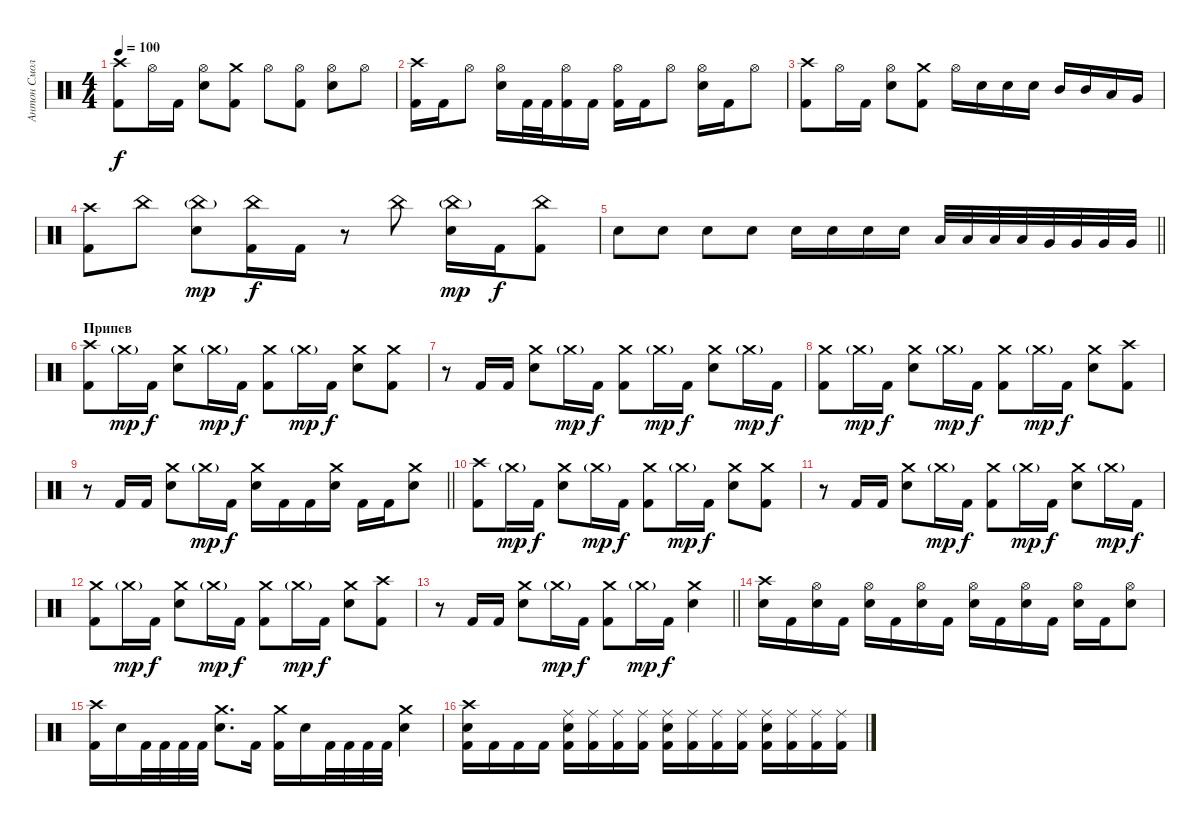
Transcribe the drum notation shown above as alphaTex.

\track ("Антон Смольянин" "Антон Смол") {instrument percussion}
\staff {score}
\articulation defaults
\ts (4 4)
\tempo 100
\clef neutral
\ks c
("Crash high (hit)" "Kick (hit) 2").8{dy f} "Hi-Hat (open)".16 "Kick (hit) 2".16 ("Hi-Hat (open)" "Electric Snare (hit)").8 ("Crash medium (hit)" "Kick (hit) 2").8 "Hi-Hat (open)".8 ("Hi-Hat (open)" "Kick (hit) 2").8 ("Hi-Hat (open)" "Electric Snare (hit)").8 "Hi-Hat (open)".8 |
("Crash high (hit)" "Kick (hit) 2").16 "Kick (hit) 2".16 "Hi-Hat (open)".8 ("Hi-Hat (open)" "Electric Snare (hit)").16 "Kick (hit) 2".32 "Kick (hit) 2".32 ("Hi-Hat (open)" "Kick (hit) 2").16 "Kick (hit) 2".16 ("Hi-Hat (open)" "Kick (hit) 2").16 "Kick (hit) 2".16 "Hi-Hat (open)".8 ("Hi-Hat (open)" "Electric Snare (hit)").16 "Kick (hit) 2".16 "Hi-Hat (open)".8 |
("Crash high (hit)" "Kick (hit) 2").8 "Hi-Hat (open)".16 "Kick (hit) 2".16 ("Hi-Hat (open)" "Electric Snare (hit)").8 ("Crash medium (hit)" "Kick (hit) 2").8 "Hi-Hat (open)".16 "Electric Snare (hit)".16 "Electric Snare (hit)".16 "Electric Snare (hit)".16 "Mid Tom (hit)".16 "Mid Tom (hit)".16 "Low Tom (hit)".16 "Very Low Tom (hit)".16 |
("Crash high (hit)" "Kick (hit) 2").8 "China (hit)".8 ("China (hit)"{g} "Electric Snare (hit)").8{dy mp} ("China (hit)" "Kick (hit) 2").16{dy f} "Kick (hit) 2".16 r.8 "China (hit)".8 ("China (hit)"{g} "Electric Snare (hit)").16{dy mp} "Kick (hit) 2".16{dy f} ("China (hit)" "Kick (hit) 2").8 |
\barLineRight lightlight "Electric Snare (hit)".8 "Electric Snare (hit)".8 "Electric Snare (hit)".8 "Electric Snare (hit)".8 "Electric Snare (hit)".16 "Electric Snare (hit)".16 "Electric Snare (hit)".16 "Electric Snare (hit)".16 "Low Tom (hit)".32 "Low Tom (hit)".32 "Low Tom (hit)".32 "Low Tom (hit)".32 "Very Low Tom (hit)".32 "Very Low Tom (hit)".32 "Very Low Tom (hit)".32 "Very Low Tom (hit)".32
|
\section ("" "Припев")
("Crash high (hit)" "Kick (hit) 2").8 "Crash medium (hit)"{g}.16{dy mp} "Kick (hit) 2".16{dy f} ("Crash medium (hit)" "Electric Snare (hit)").8 "Crash medium (hit)"{g}.16{dy mp} "Kick (hit) 2".16{dy f} ("Crash medium (hit)" "Kick (hit) 2").8 "Crash medium (hit)"{g}.16{dy mp} "Kick (hit) 2".16{dy f} ("Crash medium (hit)" "Electric Snare (hit)").8 ("Crash medium (hit)" "Kick (hit) 2").8 |
r.8 "Kick (hit) 2".16 "Kick (hit) 2".16 ("Crash medium (hit)" "Electric Snare (hit)").8 "Crash medium (hit)"{g}.16{dy mp} "Kick (hit) 2".16{dy f} ("Crash medium (hit)" "Kick (hit) 2").8 "Crash medium (hit)"{g}.16{dy mp} "Kick (hit) 2".16{dy f} ("Crash medium (hit)" "Electric Snare (hit)").8 "Crash medium (hit)"{g}.16{dy mp} "Kick (hit) 2".16{dy f} |
("Crash medium (hit)" "Kick (hit) 2").8 "Crash medium (hit)"{g}.16{dy mp} "Kick (hit) 2".16{dy f} ("Crash medium (hit)" "Electric Snare (hit)").8 "Crash medium (hit)"{g}.16{dy mp} "Kick (hit) 2".16{dy f} ("Crash medium (hit)" "Kick (hit) 2").8 "Crash medium (hit)"{g}.16{dy mp} "Kick (hit) 2".16{dy f} ("Crash medium (hit)" "Electric Snare (hit)").8 ("Crash high (hit)" "Kick (hit) 2").8 |
\barLineRight lightlight
r.8 "Kick (hit) 2".16 "Kick (hit) 2".16 ("Crash medium (hit)" "Electric Snare (hit)").8 "Crash medium (hit)"{g}.16{dy mp} "Kick (hit) 2".16{dy f} ("Crash medium (hit)" "Electric Snare (hit)").16 "Kick (hit) 2".16 "Kick (hit) 2".16 ("Crash medium (hit)" "Electric Snare (hit)").16 "Kick (hit) 2".16 "Kick (hit) 2".16 ("Crash medium (hit)" "Electric Snare (hit)").8 |
("Crash high (hit)" "Kick (hit) 2").8 "Crash medium (hit)"{g}.16{dy mp} "Kick (hit) 2".16{dy f} ("Crash medium (hit)" "Electric Snare (hit)").8 "Crash medium (hit)"{g}.16{dy mp} "Kick (hit) 2".16{dy f} ("Crash medium (hit)" "Kick (hit) 2").8 "Crash medium (hit)"{g}.16{dy mp} "Kick (hit) 2".16{dy f} ("Crash medium (hit)" "Electric Snare (hit)").8 ("Crash medium (hit)" "Kick (hit) 2").8 |
r.8 "Kick (hit) 2".16 "Kick (hit) 2".16 ("Crash medium (hit)" "Electric Snare (hit)").8 "Crash medium (hit)"{g}.16{dy mp} "Kick (hit) 2".16{dy f} ("Crash medium (hit)" "Kick (hit) 2").8 "Crash medium (hit)"{g}.16{dy mp} "Kick (hit) 2".16{dy f} ("Crash medium (hit)" "Electric Snare (hit)").8 "Crash medium (hit)"{g}.16{dy mp} "Kick (hit) 2".16{dy f} |
("Crash medium (hit)" "Kick (hit) 2").8 "Crash medium (hit)"{g}.16{dy mp} "Kick (hit) 2".16{dy f} ("Crash medium (hit)" "Electric Snare (hit)").8 "Crash medium (hit)"{g}.16{dy mp} "Kick (hit) 2".16{dy f} ("Crash medium (hit)" "Kick (hit) 2").8 "Crash medium (hit)"{g}.16{dy mp} "Kick (hit) 2".16{dy f} ("Crash medium (hit)" "Electric Snare (hit)").8 ("Crash high (hit)" "Kick (hit) 2").8 |
\barLineRight lightlight
r.8 "Kick (hit) 2".16 "Kick (hit) 2".16 ("Crash medium (hit)" "Electric Snare (hit)").8 "Crash medium (hit)"{g}.16{dy mp} "Kick (hit) 2".16{dy f} ("Crash medium (hit)" "Kick (hit) 2").8 "Crash medium (hit)"{g}.16{dy mp} "Kick (hit) 2".16{dy f} ("Crash medium (hit)" "Electric Snare (hit)").4 |
("Crash high (hit)" "Electric Snare (hit)").16 "Kick (hit) 2".16 ("Hi-Hat (open)" "Electric Snare (hit)").16 "Kick (hit) 2".16 ("Hi-Hat (open)" "Electric Snare (hit)").16 "Kick (hit) 2".16 ("Hi-Hat (open)" "Electric Snare (hit)").16 "Kick (hit) 2".16 ("Hi-Hat (open)" "Electric Snare (hit)").16 "Kick (hit) 2".16 ("Hi-Hat (open)" "Electric Snare (hit)").16 "Kick (hit) 2".16 ("Hi-Hat (open)" "Electric Snare (hit)").16 "Kick (hit) 2".16 ("Hi-Hat (open)" "Electric Snare (hit)").8 |
("Crash high (hit)" "Kick (hit) 2").16 "Electric Snare (hit)".16 "Kick (hit) 2".32 "Kick (hit) 2".32 "Kick (hit) 2".32 "Kick (hit) 2".32 ("Crash medium (hit)" "Electric Snare (hit)").8{d} "Kick (hit) 2".16 ("Crash medium (hit)" "Kick (hit) 2").16 "Electric Snare (hit)".16 "Kick (hit) 2".32 "Kick (hit) 2".32 "Kick (hit) 2".32 "Kick (hit) 2".32 ("Crash medium (hit)" "Electric Snare (hit)").4 |
("Crash high (hit)" "Electric Snare (hit)" "Kick (hit) 2").16 "Kick (hit) 2".16 "Kick (hit) 2".16 "Kick (hit) 2".16 ("Ride (middle)" "Electric Snare (hit)" "Kick (hit) 2").16 ("Ride (middle)" "Kick (hit) 2").16 ("Ride (middle)" "Kick (hit) 2").16 ("Ride (middle)" "Kick (hit) 2").16 ("Ride (middle)" "Electric Snare (hit)" "Kick (hit) 2").16 ("Ride (middle)" "Kick (hit) 2").16 ("Ride (middle)" "Kick (hit) 2").16 ("Ride (middle)" "Kick (hit) 2").16 ("Ride (middle)" "Electric Snare (hit)" "Kick (hit) 2").16 ("Ride (middle)" "Kick (hit) 2").16 ("Ride (middle)" "Kick (hit) 2").16 ("Ride (middle)" "Kick (hit) 2").16
